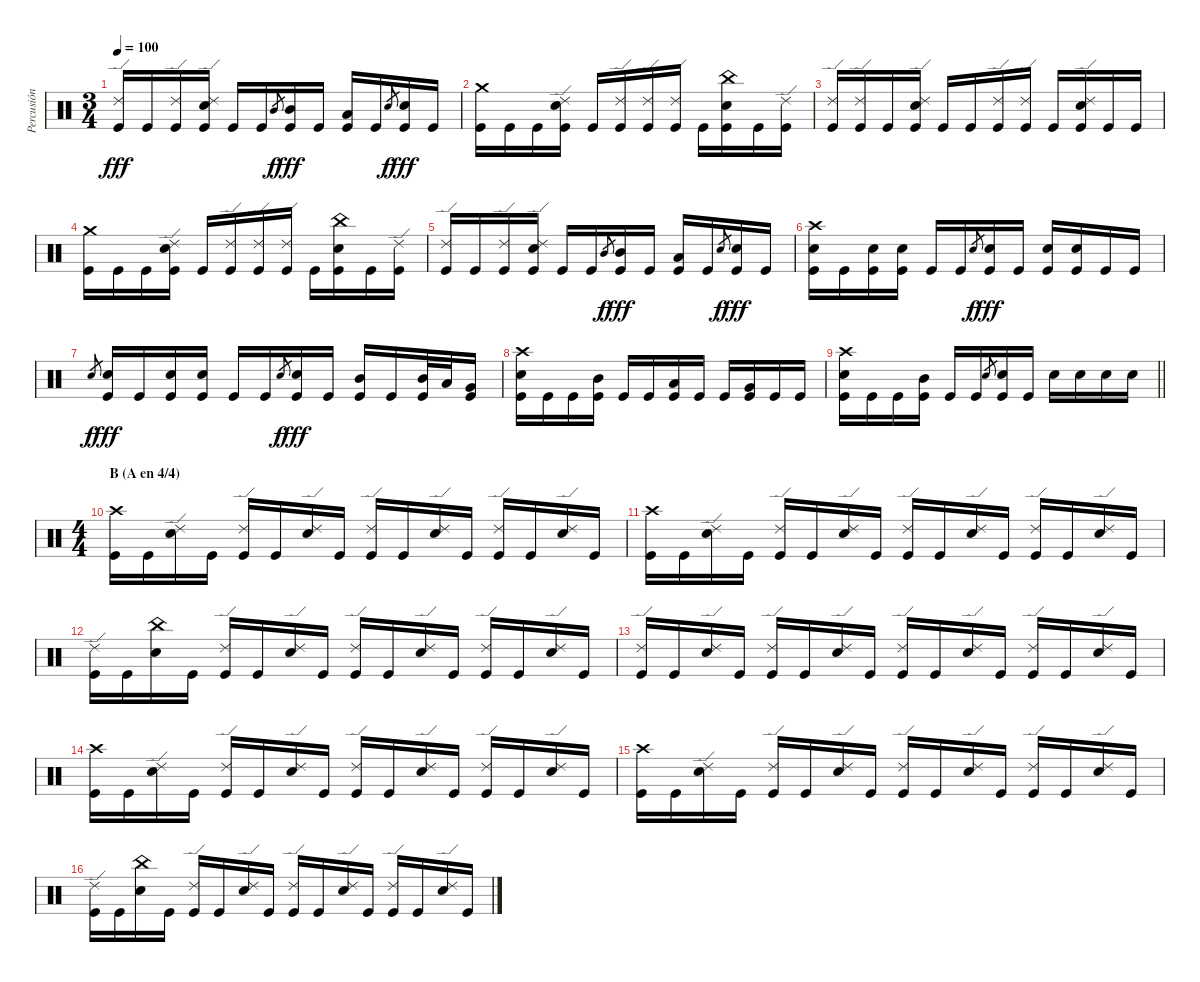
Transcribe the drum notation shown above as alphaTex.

\track ("Percusión" "Percusión") {instrument percussion}
\staff {score}
\articulation defaults
\ts (3 4)
\tempo 100
\clef neutral
\ks c
("Ride (edge) 2" "Kick (hit)").16{dy fff} "Kick (hit)".16 ("Ride (edge) 2" "Kick (hit)").16 ("Ride (edge) 2" "Electric Snare (hit)" "Kick (hit)").16 "Kick (hit)".16 "Kick (hit)".16 "Mid Tom (hit)".8{gr dy f} ("Mid Tom (hit)" "Kick (hit)").16{dy fff} "Kick (hit)".16 ("Low Tom (hit)" "Kick (hit)").16 "Kick (hit)".16 "Electric Snare (hit)".8{gr dy f} ("Electric Snare (hit)" "Kick (hit)").16{dy fff} "Kick (hit)".16 |
("Crash medium (hit)" "Kick (hit)").16 "Kick (hit)".16 "Kick (hit)".16 ("Ride (edge) 2" "Electric Snare (hit)" "Kick (hit)").16 "Kick (hit)".16 ("Ride (edge) 2" "Kick (hit)").16 ("Ride (edge) 2" "Kick (hit)").16 ("Ride (edge) 2" "Kick (hit)").16 "Kick (hit)".16 ("China (hit)" "Electric Snare (hit)" "Kick (hit)").16 "Kick (hit)".16 ("Ride (edge) 2" "Kick (hit)").16 |
("Ride (edge) 2" "Kick (hit)").16 ("Ride (edge) 2" "Kick (hit)").16 "Kick (hit)".16 ("Ride (edge) 2" "Electric Snare (hit)" "Kick (hit)").16 "Kick (hit)".16 "Kick (hit)".16 ("Ride (edge) 2" "Kick (hit)").16 ("Ride (edge) 2" "Kick (hit)").16 "Kick (hit)".16 ("Ride (edge) 2" "Electric Snare (hit)" "Kick (hit)").16 "Kick (hit)".16 "Kick (hit)".16 |
("Crash medium (hit)" "Kick (hit)").16 "Kick (hit)".16 "Kick (hit)".16 ("Ride (edge) 2" "Electric Snare (hit)" "Kick (hit)").16 "Kick (hit)".16 ("Ride (edge) 2" "Kick (hit)").16 ("Ride (edge) 2" "Kick (hit)").16 ("Ride (edge) 2" "Kick (hit)").16 "Kick (hit)".16 ("China (hit)" "Electric Snare (hit)" "Kick (hit)").16 "Kick (hit)".16 ("Ride (edge) 2" "Kick (hit)").16 |
("Ride (edge) 2" "Kick (hit)").16 "Kick (hit)".16 ("Ride (edge) 2" "Kick (hit)").16 ("Ride (edge) 2" "Electric Snare (hit)" "Kick (hit)").16 "Kick (hit)".16 "Kick (hit)".16 "Mid Tom (hit)".8{gr dy f} ("Mid Tom (hit)" "Kick (hit)").16{dy fff} "Kick (hit)".16 ("Low Tom (hit)" "Kick (hit)").16 "Kick (hit)".16 "Electric Snare (hit)".8{gr dy f} ("Electric Snare (hit)" "Kick (hit)").16{dy fff} "Kick (hit)".16 |
("Crash high (hit)" "Electric Snare (hit)" "Kick (hit)").16 "Kick (hit)".16 ("Electric Snare (hit)" "Kick (hit)").16 ("Electric Snare (hit)" "Kick (hit)").16 "Kick (hit)".16 "Kick (hit)".16 "Electric Snare (hit)".8{gr dy f} ("Electric Snare (hit)" "Kick (hit)").16{dy fff} "Kick (hit)".16 ("Electric Snare (hit)" "Kick (hit)").16 ("Electric Snare (hit)" "Kick (hit)").16 "Kick (hit)".16 "Kick (hit)".16 |
"Electric Snare (hit)".8{gr dy f} ("Electric Snare (hit)" "Kick (hit)").16{dy fff} "Kick (hit)".16 ("Electric Snare (hit)" "Kick (hit)").16 ("Electric Snare (hit)" "Kick (hit)").16 "Kick (hit)".16 "Kick (hit)".16 "Electric Snare (hit)".8{gr dy f} ("Electric Snare (hit)" "Kick (hit)").16{dy fff} "Kick (hit)".16 ("Mid Tom (hit)" "Kick (hit)").16 "Kick (hit)".16 ("Mid Tom (hit)" "Kick (hit)").32 "Low Tom (hit)".32 ("Very Low Tom (hit)" "Kick (hit)").16 |
("Crash high (hit)" "Electric Snare (hit)" "Kick (hit)").16 "Kick (hit)".16 "Kick (hit)".16 ("Mid Tom (hit)" "Kick (hit)").16 "Kick (hit)".16 "Kick (hit)".16 ("Low Tom (hit)" "Kick (hit)").16 "Kick (hit)".16 "Kick (hit)".16 ("Very Low Tom (hit)" "Kick (hit)").16 "Kick (hit)".16 "Kick (hit)".16 |
\barLineRight lightlight
("Crash high (hit)" "Electric Snare (hit)" "Kick (hit)").16 "Kick (hit)".16 "Kick (hit)".16 ("Mid Tom (hit)" "Kick (hit)").16 "Kick (hit)".16 "Kick (hit)".16 "Electric Snare (hit)".8{gr} ("Electric Snare (hit)" "Kick (hit)").16 "Kick (hit)".16 "Electric Snare (hit)".16 "Electric Snare (hit)".16 "Electric Snare (hit)".16 "Electric Snare (hit)".16 |
\ts (4 4)
\section ("" "B (A en 4/4)")
("Crash high (hit)" "Kick (hit)").16 "Kick (hit)".16 ("Ride (edge) 2" "Electric Snare (hit)").16 "Kick (hit)".16 ("Ride (edge) 2" "Kick (hit)").16 "Kick (hit)".16 ("Ride (edge) 2" "Electric Snare (hit)").16 "Kick (hit)".16 ("Ride (edge) 2" "Kick (hit)").16 "Kick (hit)".16 ("Ride (edge) 2" "Electric Snare (hit)").16 "Kick (hit)".16 ("Ride (edge) 2" "Kick (hit)").16 "Kick (hit)".16 ("Ride (edge) 2" "Electric Snare (hit)").16 "Kick (hit)".16 |
("Crash high (hit)" "Kick (hit)").16 "Kick (hit)".16 ("Ride (edge) 2" "Electric Snare (hit)").16 "Kick (hit)".16 ("Ride (edge) 2" "Kick (hit)").16 "Kick (hit)".16 ("Ride (edge) 2" "Electric Snare (hit)").16 "Kick (hit)".16 ("Ride (edge) 2" "Kick (hit)").16 "Kick (hit)".16 ("Ride (edge) 2" "Electric Snare (hit)").16 "Kick (hit)".16 ("Ride (edge) 2" "Kick (hit)").16 "Kick (hit)".16 ("Ride (edge) 2" "Electric Snare (hit)").16 "Kick (hit)".16 |
("Ride (edge) 2" "Kick (hit)").16 "Kick (hit)".16 ("China (hit)" "Electric Snare (hit)").16 "Kick (hit)".16 ("Ride (edge) 2" "Kick (hit)").16 "Kick (hit)".16 ("Ride (edge) 2" "Electric Snare (hit)").16 "Kick (hit)".16 ("Ride (edge) 2" "Kick (hit)").16 "Kick (hit)".16 ("Ride (edge) 2" "Electric Snare (hit)").16 "Kick (hit)".16 ("Ride (edge) 2" "Kick (hit)").16 "Kick (hit)".16 ("Ride (edge) 2" "Electric Snare (hit)").16 "Kick (hit)".16 |
("Ride (edge) 2" "Kick (hit)").16 "Kick (hit)".16 ("Ride (edge) 2" "Electric Snare (hit)").16 "Kick (hit)".16 ("Ride (edge) 2" "Kick (hit)").16 "Kick (hit)".16 ("Ride (edge) 2" "Electric Snare (hit)").16 "Kick (hit)".16 ("Ride (edge) 2" "Kick (hit)").16 "Kick (hit)".16 ("Ride (edge) 2" "Electric Snare (hit)").16 "Kick (hit)".16 ("Ride (edge) 2" "Kick (hit)").16 "Kick (hit)".16 ("Ride (edge) 2" "Electric Snare (hit)").16 "Kick (hit)".16 |
("Crash high (hit)" "Kick (hit)").16 "Kick (hit)".16 ("Ride (edge) 2" "Electric Snare (hit)").16 "Kick (hit)".16 ("Ride (edge) 2" "Kick (hit)").16 "Kick (hit)".16 ("Ride (edge) 2" "Electric Snare (hit)").16 "Kick (hit)".16 ("Ride (edge) 2" "Kick (hit)").16 "Kick (hit)".16 ("Ride (edge) 2" "Electric Snare (hit)").16 "Kick (hit)".16 ("Ride (edge) 2" "Kick (hit)").16 "Kick (hit)".16 ("Ride (edge) 2" "Electric Snare (hit)").16 "Kick (hit)".16 |
("Crash high (hit)" "Kick (hit)").16 "Kick (hit)".16 ("Ride (edge) 2" "Electric Snare (hit)").16 "Kick (hit)".16 ("Ride (edge) 2" "Kick (hit)").16 "Kick (hit)".16 ("Ride (edge) 2" "Electric Snare (hit)").16 "Kick (hit)".16 ("Ride (edge) 2" "Kick (hit)").16 "Kick (hit)".16 ("Ride (edge) 2" "Electric Snare (hit)").16 "Kick (hit)".16 ("Ride (edge) 2" "Kick (hit)").16 "Kick (hit)".16 ("Ride (edge) 2" "Electric Snare (hit)").16 "Kick (hit)".16 |
("Ride (edge) 2" "Kick (hit)").16 "Kick (hit)".16 ("China (hit)" "Electric Snare (hit)").16 "Kick (hit)".16 ("Ride (edge) 2" "Kick (hit)").16 "Kick (hit)".16 ("Ride (edge) 2" "Electric Snare (hit)").16 "Kick (hit)".16 ("Ride (edge) 2" "Kick (hit)").16 "Kick (hit)".16 ("Ride (edge) 2" "Electric Snare (hit)").16 "Kick (hit)".16 ("Ride (edge) 2" "Kick (hit)").16 "Kick (hit)".16 ("Ride (edge) 2" "Electric Snare (hit)").16 "Kick (hit)".16
